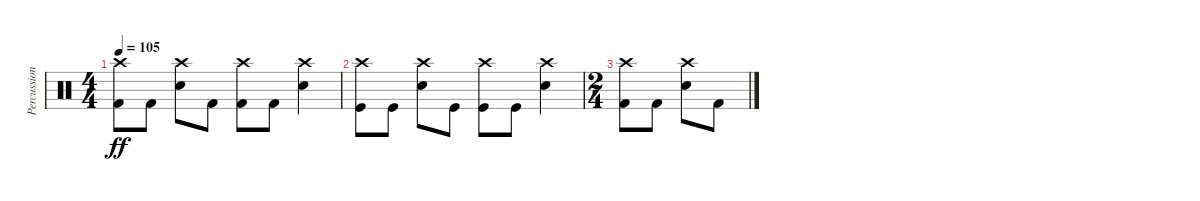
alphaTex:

\track ("Percussion" "Percussion") {instrument percussion}
\staff {score}
\articulation defaults
\ts (4 4)
\tempo 105
\clef neutral
\ks c
("Crash high (hit)" "Kick (hit) 2").8{dy ff} "Kick (hit) 2".8 ("Crash high (hit)" "Electric Snare (hit)").8 "Kick (hit) 2".8 ("Crash high (hit)" "Kick (hit) 2").8 "Kick (hit) 2".8 ("Crash high (hit)" "Electric Snare (hit)").4 |
("Crash high (hit)" "Kick (hit)").8 "Kick (hit)".8 ("Crash high (hit)" "Electric Snare (hit)").8 "Kick (hit)".8 ("Crash high (hit)" "Kick (hit)").8 "Kick (hit)".8 ("Crash high (hit)" "Electric Snare (hit)").4 |
\ts (2 4)
("Crash high (hit)" "Kick (hit) 2").8 "Kick (hit) 2".8 ("Crash high (hit)" "Electric Snare (hit)").8 "Kick (hit) 2".8
